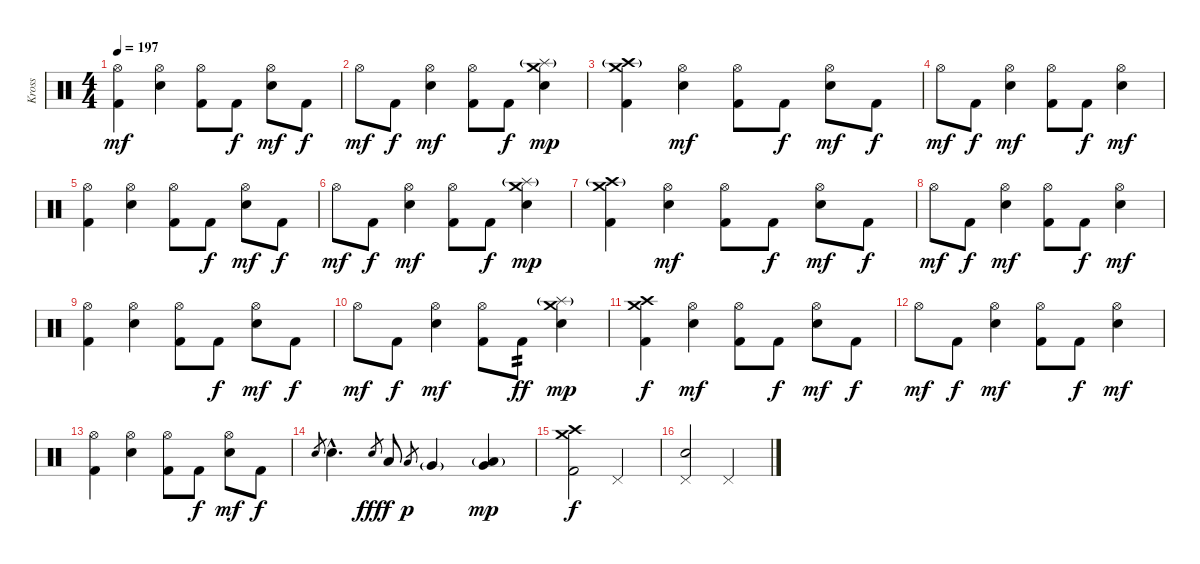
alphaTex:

\track ("Kross" "Kross") {instrument percussion}
\staff {score}
\articulation defaults
\ts (4 4)
\tempo 197
\clef neutral
\ks c
("Hi-Hat (open)" "Kick (hit) 2").4{dy mf} ("Hi-Hat (open)" "Electric Snare (hit)").4 ("Hi-Hat (open)" "Kick (hit) 2").8 "Kick (hit) 2".8{dy f} ("Hi-Hat (open)" "Electric Snare (hit)").8{dy mf} "Kick (hit) 2".8{dy f} |
"Hi-Hat (open)".8{dy mf} "Kick (hit) 2".8{dy f} ("Hi-Hat (open)" "Electric Snare (hit)").4{dy mf} ("Hi-Hat (open)" "Kick (hit) 2").8 "Kick (hit) 2".8{dy f} ("Crash medium (hit)" "Splash (hit)"{g} "Electric Snare (hit)").4{dy mp} |
("Crash medium (hit)" "Crash high (hit)"{g} "Kick (hit) 2").4 ("Hi-Hat (open)" "Electric Snare (hit)").4{dy mf} ("Hi-Hat (open)" "Kick (hit) 2").8 "Kick (hit) 2".8{dy f} ("Hi-Hat (open)" "Electric Snare (hit)").8{dy mf} "Kick (hit) 2".8{dy f} |
"Hi-Hat (open)".8{dy mf} "Kick (hit) 2".8{dy f} ("Hi-Hat (open)" "Electric Snare (hit)").4{dy mf} ("Hi-Hat (open)" "Kick (hit) 2").8 "Kick (hit) 2".8{dy f} ("Hi-Hat (open)" "Electric Snare (hit)").4{dy mf} |
("Hi-Hat (open)" "Kick (hit) 2").4 ("Hi-Hat (open)" "Electric Snare (hit)").4 ("Hi-Hat (open)" "Kick (hit) 2").8 "Kick (hit) 2".8{dy f} ("Hi-Hat (open)" "Electric Snare (hit)").8{dy mf} "Kick (hit) 2".8{dy f} |
"Hi-Hat (open)".8{dy mf} "Kick (hit) 2".8{dy f} ("Hi-Hat (open)" "Electric Snare (hit)").4{dy mf} ("Hi-Hat (open)" "Kick (hit) 2").8 "Kick (hit) 2".8{dy f} ("Crash medium (hit)" "Splash (hit)"{g} "Electric Snare (hit)").4{dy mp} |
("Crash medium (hit)" "Crash high (hit)"{g} "Kick (hit) 2").4 ("Hi-Hat (open)" "Electric Snare (hit)").4{dy mf} ("Hi-Hat (open)" "Kick (hit) 2").8 "Kick (hit) 2".8{dy f} ("Hi-Hat (open)" "Electric Snare (hit)").8{dy mf} "Kick (hit) 2".8{dy f} |
"Hi-Hat (open)".8{dy mf} "Kick (hit) 2".8{dy f} ("Hi-Hat (open)" "Electric Snare (hit)").4{dy mf} ("Hi-Hat (open)" "Kick (hit) 2").8 "Kick (hit) 2".8{dy f} ("Hi-Hat (open)" "Electric Snare (hit)").4{dy mf} |
("Hi-Hat (open)" "Kick (hit) 2").4 ("Hi-Hat (open)" "Electric Snare (hit)").4 ("Hi-Hat (open)" "Kick (hit) 2").8 "Kick (hit) 2".8{dy f} ("Hi-Hat (open)" "Electric Snare (hit)").8{dy mf} "Kick (hit) 2".8{dy f} |
"Hi-Hat (open)".8{dy mf} "Kick (hit) 2".8{dy f} ("Hi-Hat (open)" "Electric Snare (hit)").4{dy mf} ("Hi-Hat (open)" "Kick (hit) 2").8 "Kick (hit) 2".8{tp 2 dy ff} ("Crash medium (hit)" "Splash (hit)"{g} "Electric Snare (hit)").4{dy mp} |
("Crash medium (hit)" "Crash high (hit)" "Kick (hit) 2").4{dy f} ("Hi-Hat (open)" "Electric Snare (hit)").4{dy mf} ("Hi-Hat (open)" "Kick (hit) 2").8 "Kick (hit) 2".8{dy f} ("Hi-Hat (open)" "Electric Snare (hit)").8{dy mf} "Kick (hit) 2".8{dy f} |
"Hi-Hat (open)".8{dy mf} "Kick (hit) 2".8{dy f} ("Hi-Hat (open)" "Electric Snare (hit)").4{dy mf} ("Hi-Hat (open)" "Kick (hit) 2").8 "Kick (hit) 2".8{dy f} ("Hi-Hat (open)" "Electric Snare (hit)").4{dy mf} |
("Hi-Hat (open)" "Kick (hit) 2").4 ("Hi-Hat (open)" "Electric Snare (hit)").4 ("Hi-Hat (open)" "Kick (hit) 2").8 "Kick (hit) 2".8{dy f} ("Hi-Hat (open)" "Electric Snare (hit)").8{dy mf} "Kick (hit) 2".8{dy f} |
"Electric Snare (hit)".8{gr} "Electric Snare (hit)"{hac}.4{d} "Electric Snare (hit)".8{gr dy fff} "Low Tom (hit)".8{dy f} "Low Tom (hit)".8{gr dy p} "Very Low Tom (hit)"{g}.4 ("Low Floor Tom (hit)"{g} "Very Low Tom (hit)").4{dy mp} |
("Crash medium (hit)" "Crash high (hit)" "Kick (hit) 2").2{dy f} "Pedal Hi-Hat (hit)".2 |
("Pedal Hi-Hat (hit)" "Electric Snare (hit)").2 "Pedal Hi-Hat (hit)".2
